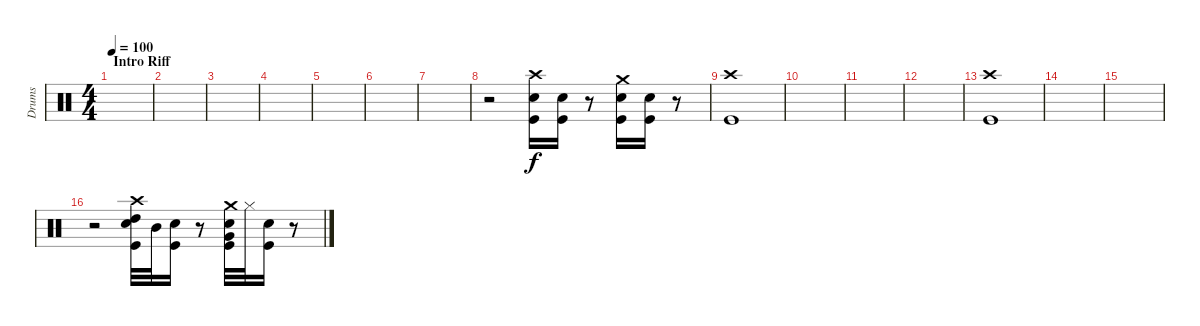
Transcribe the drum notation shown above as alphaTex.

\track ("Drums" "Drums") {instrument percussion}
\staff {score}
\articulation defaults
\ts (4 4)
\section ("" "Intro Riff")
\tempo 100
\clef neutral
\ks c
|
|
|
|
|
|
|
r.2 ("Crash high (hit)" "Electric Snare (hit)" "Kick (hit)").16 ("Electric Snare (hit)" "Kick (hit)").16 r.8 ("Crash medium (hit)" "Electric Snare (hit)" "Kick (hit)").16 ("Electric Snare (hit)" "Kick (hit)").16 r.8 |
("Crash high (hit)" "Kick (hit)").1 |
|
|
|
("Crash high (hit)" "Kick (hit)").1 |
|
|
r.2 ("Crash high (hit)" "Electric Snare (hit)" "High Tom (hit)" "Kick (hit)").32 "Mid Tom (hit)".32 ("Electric Snare (hit)" "Kick (hit)").16 r.8 ("Crash medium (hit)" "Electric Snare (hit)" "Very Low Tom (hit)" "Kick (hit)").32 "Hi-Hat (closed)".32 ("Electric Snare (hit)" "Kick (hit)").16 r.8
